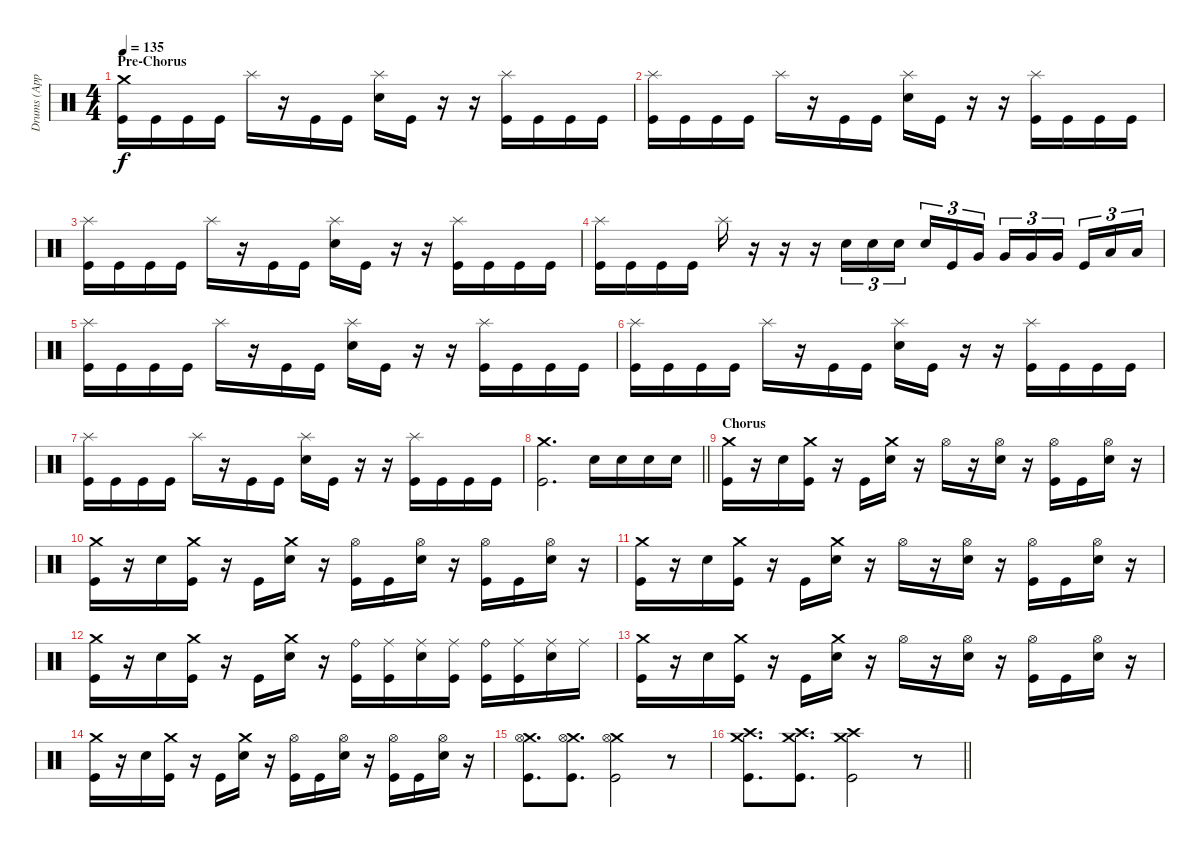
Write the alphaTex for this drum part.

\track ("Drums (Approx.)" "Drums (App") {instrument percussion}
\staff {score}
\articulation defaults
\ts (4 4)
\section ("" "Pre-Chorus")
\tempo 135
\clef neutral
\ks c
("Crash medium (hit)" "Kick (hit)").16{dy f} "Kick (hit)".16 "Kick (hit)".16 "Kick (hit)".16 "Splash (hit)".16 r.16 "Kick (hit)".16 "Kick (hit)".16 ("Splash (hit)" "Electric Snare (hit)").16 "Kick (hit)".16 r.16 r.16 ("Splash (hit)" "Kick (hit)").16 "Kick (hit)".16 "Kick (hit)".16 "Kick (hit)".16 |
("Splash (hit)" "Kick (hit)").16 "Kick (hit)".16 "Kick (hit)".16 "Kick (hit)".16 "Splash (hit)".16 r.16 "Kick (hit)".16 "Kick (hit)".16 ("Splash (hit)" "Electric Snare (hit)").16 "Kick (hit)".16 r.16 r.16 ("Splash (hit)" "Kick (hit)").16 "Kick (hit)".16 "Kick (hit)".16 "Kick (hit)".16 |
("Splash (hit)" "Kick (hit)").16 "Kick (hit)".16 "Kick (hit)".16 "Kick (hit)".16 "Splash (hit)".16 r.16 "Kick (hit)".16 "Kick (hit)".16 ("Splash (hit)" "Electric Snare (hit)").16 "Kick (hit)".16 r.16 r.16 ("Splash (hit)" "Kick (hit)").16 "Kick (hit)".16 "Kick (hit)".16 "Kick (hit)".16 |
("Splash (hit)" "Kick (hit)").16 "Kick (hit)".16 "Kick (hit)".16 "Kick (hit)".16 "Splash (hit)".16 r.16 r.16 r.16 "Electric Snare (hit)".16{tu (3 2)} "Electric Snare (hit)".16{tu (3 2)} "Electric Snare (hit)".16{tu (3 2) beam splitsecondary} "Electric Snare (hit)".16{tu (3 2)} "Kick (hit)".16{tu (3 2)} "Very Low Tom (hit)".16{tu (3 2)} "Very Low Tom (hit)".16{tu (3 2)} "Very Low Tom (hit)".16{tu (3 2)} "Very Low Tom (hit)".16{tu (3 2) beam splitsecondary} "Kick (hit)".16{tu (3 2)} "Low Floor Tom (hit)".16{tu (3 2)} "Low Floor Tom (hit)".16{tu (3 2)} |
("Splash (hit)" "Kick (hit)").16 "Kick (hit)".16 "Kick (hit)".16 "Kick (hit)".16 "Splash (hit)".16 r.16 "Kick (hit)".16 "Kick (hit)".16 ("Splash (hit)" "Electric Snare (hit)").16 "Kick (hit)".16 r.16 r.16 ("Splash (hit)" "Kick (hit)").16 "Kick (hit)".16 "Kick (hit)".16 "Kick (hit)".16 |
("Splash (hit)" "Kick (hit)").16 "Kick (hit)".16 "Kick (hit)".16 "Kick (hit)".16 "Splash (hit)".16 r.16 "Kick (hit)".16 "Kick (hit)".16 ("Splash (hit)" "Electric Snare (hit)").16 "Kick (hit)".16 r.16 r.16 ("Splash (hit)" "Kick (hit)").16 "Kick (hit)".16 "Kick (hit)".16 "Kick (hit)".16 |
("Splash (hit)" "Kick (hit)").16 "Kick (hit)".16 "Kick (hit)".16 "Kick (hit)".16 "Splash (hit)".16 r.16 "Kick (hit)".16 "Kick (hit)".16 ("Splash (hit)" "Electric Snare (hit)").16 "Kick (hit)".16 r.16 r.16 ("Splash (hit)" "Kick (hit)").16 "Kick (hit)".16 "Kick (hit)".16 "Kick (hit)".16 |
\barLineRight lightlight
("Crash medium (hit)" "Kick (hit)").2{d} "Electric Snare (hit)".16 "Electric Snare (hit)".16 "Electric Snare (hit)".16 "Electric Snare (hit)".16 |
\section ("" "Chorus")
("Crash medium (hit)" "Kick (hit)").16 r.16 "Electric Snare (hit)".16 ("Crash medium (hit)" "Kick (hit)").16 r.16 "Kick (hit)".16 ("Crash medium (hit)" "Electric Snare (hit)").16 r.16 "Hi-Hat (open)".16 r.16 ("Hi-Hat (open)" "Electric Snare (hit)").16 r.16 ("Hi-Hat (open)" "Kick (hit)").16 "Kick (hit)".16 ("Hi-Hat (open)" "Electric Snare (hit)").16 r.16 |
("Crash medium (hit)" "Kick (hit)").16 r.16 "Electric Snare (hit)".16 ("Crash medium (hit)" "Kick (hit)").16 r.16 "Kick (hit)".16 ("Crash medium (hit)" "Electric Snare (hit)").16 r.16 ("Hi-Hat (open)" "Kick (hit)").16 "Kick (hit)".16 ("Hi-Hat (open)" "Electric Snare (hit)").16 r.16 ("Hi-Hat (open)" "Kick (hit)").16 "Kick (hit)".16 ("Hi-Hat (open)" "Electric Snare (hit)").16 r.16 |
("Crash medium (hit)" "Kick (hit)").16 r.16 "Electric Snare (hit)".16 ("Crash medium (hit)" "Kick (hit)").16 r.16 "Kick (hit)".16 ("Crash medium (hit)" "Electric Snare (hit)").16 r.16 "Hi-Hat (open)".16 r.16 ("Hi-Hat (open)" "Electric Snare (hit)").16 r.16 ("Hi-Hat (open)" "Kick (hit)").16 "Kick (hit)".16 ("Hi-Hat (open)" "Electric Snare (hit)").16 r.16 |
("Crash medium (hit)" "Kick (hit)").16 r.16 "Electric Snare (hit)".16 ("Crash medium (hit)" "Kick (hit)").16 r.16 "Kick (hit)".16 ("Crash medium (hit)" "Electric Snare (hit)").16 r.16 ("Ride (bell)" "Kick (hit)").16 ("Ride (middle)" "Kick (hit)").16 ("Ride (middle)" "Electric Snare (hit)").16 ("Ride (middle)" "Kick (hit)").16 ("Ride (bell)" "Kick (hit)").16 ("Ride (middle)" "Kick (hit)").16 ("Ride (middle)" "Electric Snare (hit)").16 "Ride (middle)".16 |
("Crash medium (hit)" "Kick (hit)").16 r.16 "Electric Snare (hit)".16 ("Crash medium (hit)" "Kick (hit)").16 r.16 "Kick (hit)".16 ("Crash medium (hit)" "Electric Snare (hit)").16 r.16 "Hi-Hat (open)".16 r.16 ("Hi-Hat (open)" "Electric Snare (hit)").16 r.16 ("Hi-Hat (open)" "Kick (hit)").16 "Kick (hit)".16 ("Hi-Hat (open)" "Electric Snare (hit)").16 r.16 |
("Crash medium (hit)" "Kick (hit)").16 r.16 "Electric Snare (hit)".16 ("Crash medium (hit)" "Kick (hit)").16 r.16 "Kick (hit)".16 ("Crash medium (hit)" "Electric Snare (hit)").16 r.16 ("Hi-Hat (open)" "Kick (hit)").16 "Kick (hit)".16 ("Hi-Hat (open)" "Electric Snare (hit)").16 r.16 ("Hi-Hat (open)" "Kick (hit)").16 "Kick (hit)".16 ("Hi-Hat (open)" "Electric Snare (hit)").16 r.16 |
("Crash medium (hit)" "Hi-Hat (open)" "Kick (hit)").8{d} ("Crash medium (hit)" "Hi-Hat (open)" "Kick (hit)").8{d} ("Crash medium (hit)" "Hi-Hat (open)" "Kick (hit)").2 r.8 |
\barLineRight lightlight
("Crash medium (hit)" "Crash high (hit)" "Kick (hit)").8{d} ("Crash medium (hit)" "Crash high (hit)" "Kick (hit)").8{d} ("Crash medium (hit)" "Crash high (hit)" "Kick (hit)").2 r.8
